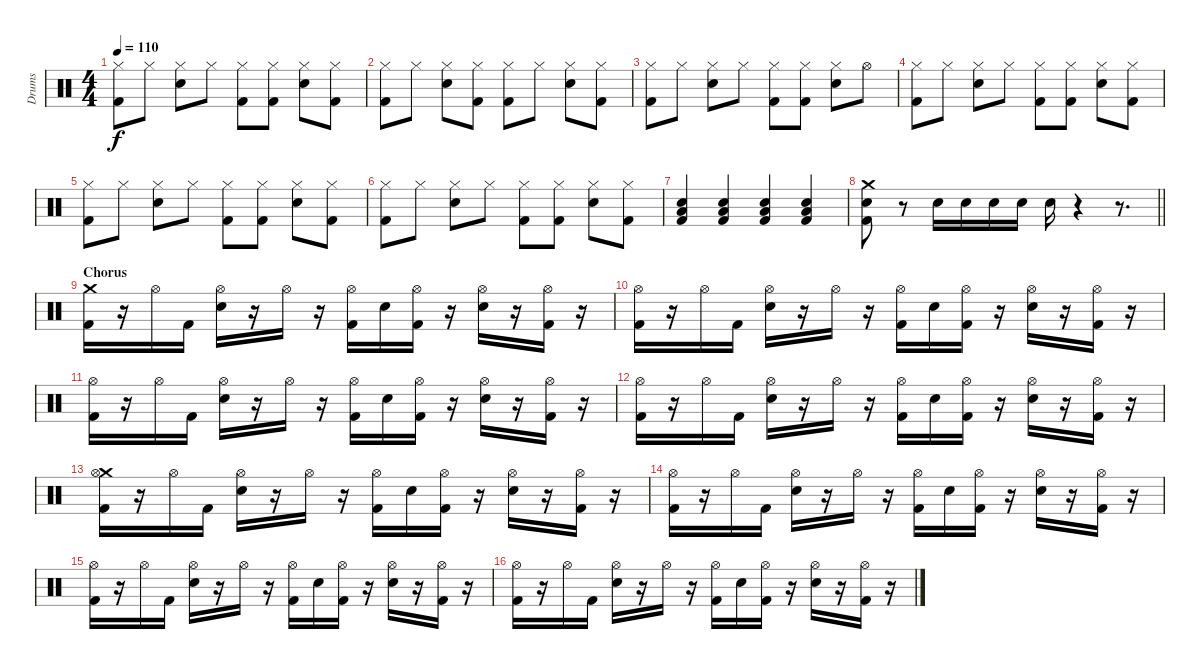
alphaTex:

\track ("Drums" "Drums") {instrument percussion}
\staff {score}
\articulation defaults
\ts (4 4)
\tempo 110
\clef neutral
\ks c
("Hi-Hat (closed)" "Kick (hit) 2").8{dy f} "Hi-Hat (closed)".8 ("Hi-Hat (closed)" "Electric Snare (hit)").8 "Hi-Hat (closed)".8 ("Hi-Hat (closed)" "Kick (hit) 2").8 ("Hi-Hat (closed)" "Kick (hit) 2").8 ("Hi-Hat (closed)" "Electric Snare (hit)").8 ("Hi-Hat (closed)" "Kick (hit) 2").8 |
("Hi-Hat (closed)" "Kick (hit) 2").8 "Hi-Hat (closed)".8 ("Hi-Hat (closed)" "Electric Snare (hit)").8 ("Hi-Hat (closed)" "Kick (hit) 2").8 ("Hi-Hat (closed)" "Kick (hit) 2").8 "Hi-Hat (closed)".8 ("Hi-Hat (closed)" "Electric Snare (hit)").8 ("Hi-Hat (closed)" "Kick (hit) 2").8 |
("Hi-Hat (closed)" "Kick (hit) 2").8 "Hi-Hat (closed)".8 ("Hi-Hat (closed)" "Electric Snare (hit)").8 "Hi-Hat (closed)".8 ("Hi-Hat (closed)" "Kick (hit) 2").8 ("Hi-Hat (closed)" "Kick (hit) 2").8 ("Hi-Hat (closed)" "Electric Snare (hit)").8 "Hi-Hat (open)".8 |
("Hi-Hat (closed)" "Kick (hit) 2").8 "Hi-Hat (closed)".8 ("Hi-Hat (closed)" "Electric Snare (hit)").8 "Hi-Hat (closed)".8 ("Hi-Hat (closed)" "Kick (hit) 2").8 ("Hi-Hat (closed)" "Kick (hit) 2").8 ("Hi-Hat (closed)" "Electric Snare (hit)").8 ("Hi-Hat (closed)" "Kick (hit) 2").8 |
("Hi-Hat (closed)" "Kick (hit) 2").8 "Hi-Hat (closed)".8 ("Hi-Hat (closed)" "Electric Snare (hit)").8 "Hi-Hat (closed)".8 ("Hi-Hat (closed)" "Kick (hit) 2").8 ("Hi-Hat (closed)" "Kick (hit) 2").8 ("Hi-Hat (closed)" "Electric Snare (hit)").8 ("Hi-Hat (closed)" "Kick (hit) 2").8 |
("Hi-Hat (closed)" "Kick (hit) 2").8 "Hi-Hat (closed)".8 ("Hi-Hat (closed)" "Electric Snare (hit)").8 "Hi-Hat (closed)".8 ("Hi-Hat (closed)" "Kick (hit) 2").8 ("Hi-Hat (closed)" "Kick (hit) 2").8 ("Hi-Hat (closed)" "Electric Snare (hit)").8 ("Hi-Hat (closed)" "Kick (hit) 2").8 |
("Electric Snare (hit)" "Low Tom (hit)" "Kick (hit) 2").4 ("Electric Snare (hit)" "Low Tom (hit)" "Kick (hit) 2").4 ("Electric Snare (hit)" "Low Tom (hit)" "Kick (hit) 2").4 ("Electric Snare (hit)" "Low Tom (hit)" "Kick (hit) 2").4 |
\barLineRight lightlight
("Crash medium (hit)" "Electric Snare (hit)" "Kick (hit) 2").8 r.8 "Electric Snare (hit)".16 "Electric Snare (hit)".16 "Electric Snare (hit)".16 "Electric Snare (hit)".16 "Electric Snare (hit)".16 r.4 r.8{d} |
\section ("" "Chorus")
("Crash medium (hit)" "Kick (hit) 2").16 r.16 "Hi-Hat (open)".16 "Kick (hit) 2".16 ("Hi-Hat (open)" "Electric Snare (hit)").16 r.16 "Hi-Hat (open)".16 r.16 ("Hi-Hat (open)" "Kick (hit) 2").16 "Electric Snare (hit)".16 ("Hi-Hat (open)" "Kick (hit) 2").16 r.16 ("Hi-Hat (open)" "Electric Snare (hit)").16 r.16 ("Hi-Hat (open)" "Kick (hit) 2").16 r.16 |
("Hi-Hat (open)" "Kick (hit) 2").16 r.16 "Hi-Hat (open)".16 "Kick (hit) 2".16 ("Hi-Hat (open)" "Electric Snare (hit)").16 r.16 "Hi-Hat (open)".16 r.16 ("Hi-Hat (open)" "Kick (hit) 2").16 "Electric Snare (hit)".16 ("Hi-Hat (open)" "Kick (hit) 2").16 r.16 ("Hi-Hat (open)" "Electric Snare (hit)").16 r.16 ("Hi-Hat (open)" "Kick (hit) 2").16 r.16 |
("Hi-Hat (open)" "Kick (hit) 2").16 r.16 "Hi-Hat (open)".16 "Kick (hit) 2".16 ("Hi-Hat (open)" "Electric Snare (hit)").16 r.16 "Hi-Hat (open)".16 r.16 ("Hi-Hat (open)" "Kick (hit) 2").16 "Electric Snare (hit)".16 ("Hi-Hat (open)" "Kick (hit) 2").16 r.16 ("Hi-Hat (open)" "Electric Snare (hit)").16 r.16 ("Hi-Hat (open)" "Kick (hit) 2").16 r.16 |
("Hi-Hat (open)" "Kick (hit) 2").16 r.16 "Hi-Hat (open)".16 "Kick (hit) 2".16 ("Hi-Hat (open)" "Electric Snare (hit)").16 r.16 "Hi-Hat (open)".16 r.16 ("Hi-Hat (open)" "Kick (hit) 2").16 "Electric Snare (hit)".16 ("Hi-Hat (open)" "Kick (hit) 2").16 r.16 ("Hi-Hat (open)" "Electric Snare (hit)").16 r.16 ("Hi-Hat (open)" "Kick (hit) 2").16 r.16 |
("Crash medium (hit)" "Hi-Hat (open)" "Kick (hit) 2").16 r.16 "Hi-Hat (open)".16 "Kick (hit) 2".16 ("Hi-Hat (open)" "Electric Snare (hit)").16 r.16 "Hi-Hat (open)".16 r.16 ("Hi-Hat (open)" "Kick (hit) 2").16 "Electric Snare (hit)".16 ("Hi-Hat (open)" "Kick (hit) 2").16 r.16 ("Hi-Hat (open)" "Electric Snare (hit)").16 r.16 ("Hi-Hat (open)" "Kick (hit) 2").16 r.16 |
("Hi-Hat (open)" "Kick (hit) 2").16 r.16 "Hi-Hat (open)".16 "Kick (hit) 2".16 ("Hi-Hat (open)" "Electric Snare (hit)").16 r.16 "Hi-Hat (open)".16 r.16 ("Hi-Hat (open)" "Kick (hit) 2").16 "Electric Snare (hit)".16 ("Hi-Hat (open)" "Kick (hit) 2").16 r.16 ("Hi-Hat (open)" "Electric Snare (hit)").16 r.16 ("Hi-Hat (open)" "Kick (hit) 2").16 r.16 |
("Hi-Hat (open)" "Kick (hit) 2").16 r.16 "Hi-Hat (open)".16 "Kick (hit) 2".16 ("Hi-Hat (open)" "Electric Snare (hit)").16 r.16 "Hi-Hat (open)".16 r.16 ("Hi-Hat (open)" "Kick (hit) 2").16 "Electric Snare (hit)".16 ("Hi-Hat (open)" "Kick (hit) 2").16 r.16 ("Hi-Hat (open)" "Electric Snare (hit)").16 r.16 ("Hi-Hat (open)" "Kick (hit) 2").16 r.16 |
("Hi-Hat (open)" "Kick (hit) 2").16 r.16 "Hi-Hat (open)".16 "Kick (hit) 2".16 ("Hi-Hat (open)" "Electric Snare (hit)").16 r.16 "Hi-Hat (open)".16 r.16 ("Hi-Hat (open)" "Kick (hit) 2").16 "Electric Snare (hit)".16 ("Hi-Hat (open)" "Kick (hit) 2").16 r.16 ("Hi-Hat (open)" "Electric Snare (hit)").16 r.16 ("Hi-Hat (open)" "Kick (hit) 2").16 r.16
